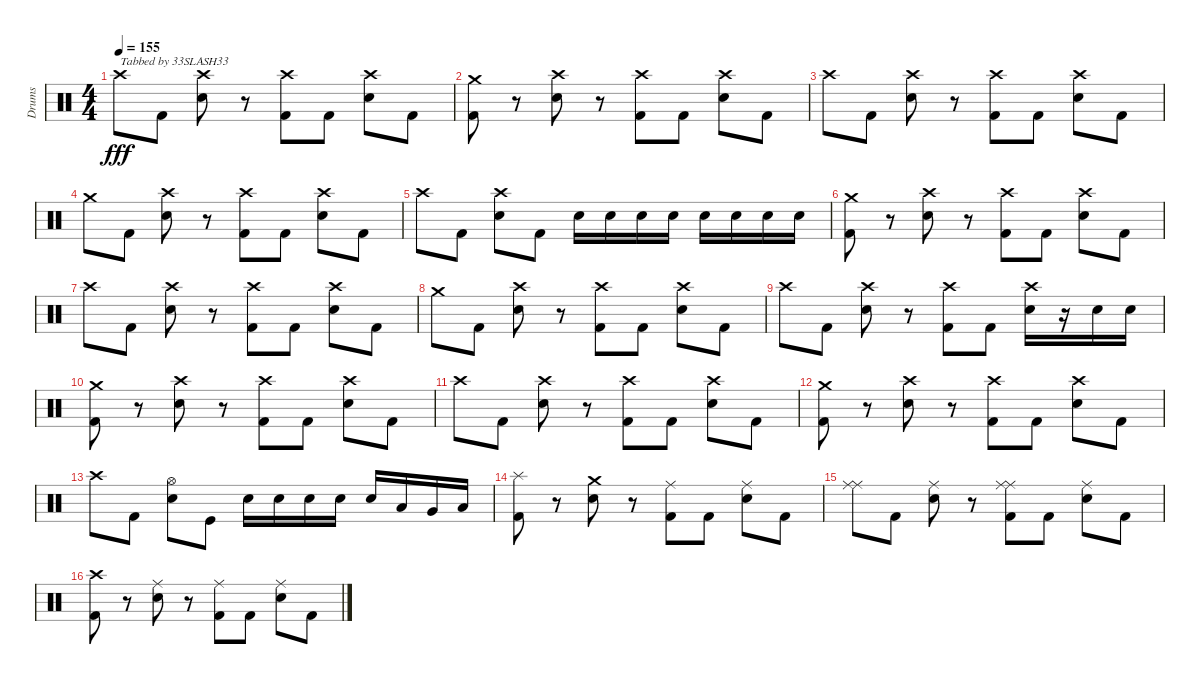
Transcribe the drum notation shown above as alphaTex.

\track ("Drums" "Drums") {instrument percussion}
\staff {score}
\articulation defaults
\ts (4 4)
\tempo 155
\clef neutral
\ks c "Crash high (hit)".8{txt "Tabbed by 33SLASH33" dy fff} "Kick (hit) 2".8
("Crash high (hit)" "Snare (hit) 2").8 r.8 ("Crash high (hit)" "Kick (hit) 2").8 "Kick (hit) 2".8 ("Crash high (hit)" "Snare (hit) 2").8 "Kick (hit) 2".8 |
("Crash medium (hit)" "Kick (hit) 2").8 r.8 ("Crash high (hit)" "Snare (hit) 2").8 r.8 ("Crash high (hit)" "Kick (hit) 2").8 "Kick (hit) 2".8 ("Crash high (hit)" "Snare (hit) 2").8 "Kick (hit) 2".8 |
"Crash high (hit)".8 "Kick (hit) 2".8 ("Crash high (hit)" "Snare (hit) 2").8 r.8 ("Crash high (hit)" "Kick (hit) 2").8 "Kick (hit) 2".8 ("Crash high (hit)" "Snare (hit) 2").8 "Kick (hit) 2".8 |
"Crash medium (hit)".8 "Kick (hit) 2".8 ("Crash high (hit)" "Snare (hit) 2").8 r.8 ("Crash high (hit)" "Kick (hit) 2").8 "Kick (hit) 2".8 ("Crash high (hit)" "Snare (hit) 2").8 "Kick (hit) 2".8 |
"Crash high (hit)".8 "Kick (hit) 2".8 ("Crash high (hit)" "Snare (hit) 2").8 "Kick (hit) 2".8 "Snare (hit) 2".16 "Snare (hit) 2".16 "Snare (hit) 2".16 "Snare (hit) 2".16 "Snare (hit) 2".16 "Snare (hit) 2".16 "Snare (hit) 2".16 "Snare (hit) 2".16 |
("Crash medium (hit)" "Kick (hit) 2").8 r.8 ("Crash high (hit)" "Snare (hit) 2").8 r.8 ("Crash high (hit)" "Kick (hit) 2").8 "Kick (hit) 2".8 ("Crash high (hit)" "Snare (hit) 2").8 "Kick (hit) 2".8 |
"Crash high (hit)".8 "Kick (hit) 2".8 ("Crash high (hit)" "Snare (hit) 2").8 r.8 ("Crash high (hit)" "Kick (hit) 2").8 "Kick (hit) 2".8 ("Crash high (hit)" "Snare (hit) 2").8 "Kick (hit) 2".8 |
"Crash medium (hit)".8 "Kick (hit) 2".8 ("Crash high (hit)" "Snare (hit) 2").8 r.8 ("Crash high (hit)" "Kick (hit) 2").8 "Kick (hit) 2".8 ("Crash high (hit)" "Snare (hit) 2").8 "Kick (hit) 2".8 |
"Crash high (hit)".8 "Kick (hit) 2".8 ("Crash high (hit)" "Snare (hit) 2").8 r.8 ("Crash high (hit)" "Kick (hit) 2").8 "Kick (hit) 2".8 ("Crash high (hit)" "Snare (hit) 2").16 r.16 "Snare (hit) 2".16 "Snare (hit) 2".16 |
("Crash medium (hit)" "Kick (hit) 2").8 r.8 ("Crash high (hit)" "Snare (hit) 2").8 r.8 ("Crash high (hit)" "Kick (hit) 2").8 "Kick (hit) 2".8 ("Crash high (hit)" "Snare (hit) 2").8 "Kick (hit) 2".8 |
"Crash high (hit)".8 "Kick (hit) 2".8 ("Crash high (hit)" "Snare (hit) 2").8 r.8 ("Crash high (hit)" "Kick (hit) 2").8 "Kick (hit) 2".8 ("Crash high (hit)" "Snare (hit) 2").8 "Kick (hit) 2".8 |
("Crash medium (hit)" "Kick (hit) 2").8 r.8 ("Crash high (hit)" "Snare (hit) 2").8 r.8 ("Crash high (hit)" "Kick (hit) 2").8 "Kick (hit) 2".8 ("Crash high (hit)" "Snare (hit) 2").8 "Kick (hit) 2".8 |
"Crash high (hit)".8 "Kick (hit) 2".8 ("Hi-Hat (open)" "Snare (hit) 2").8 "Kick (hit)".8 "Snare (hit) 2".16 "Snare (hit) 2".16 "Snare (hit) 2".16 "Snare (hit) 2".16 "Snare (hit) 2".16 "Low Tom (hit)".16 "Very Low Tom (hit)".16 "Low Floor Tom (hit)".16 |
("Splash (hit)" "Kick (hit) 2").8 r.8 ("Crash medium (hit)" "Snare (hit) 2").8 r.8 ("Ride (middle)" "Kick (hit) 2").8 "Kick (hit) 2".8 ("Ride (middle)" "Snare (hit) 2").8 "Kick (hit) 2".8 |
("Ride (middle)" "Ride (middle)").8 "Kick (hit) 2".8 ("Ride (middle)" "Snare (hit) 2").8 r.8 ("Ride (middle)" "Ride (middle)" "Kick (hit) 2").8 "Kick (hit) 2".8 ("Ride (middle)" "Snare (hit) 2").8 "Kick (hit) 2".8 |
("Crash high (hit)" "Kick (hit) 2").8 r.8 ("Ride (middle)" "Snare (hit) 2").8 r.8 ("Ride (middle)" "Kick (hit) 2").8 "Kick (hit) 2".8 ("Ride (middle)" "Snare (hit) 2").8 "Kick (hit) 2".8
